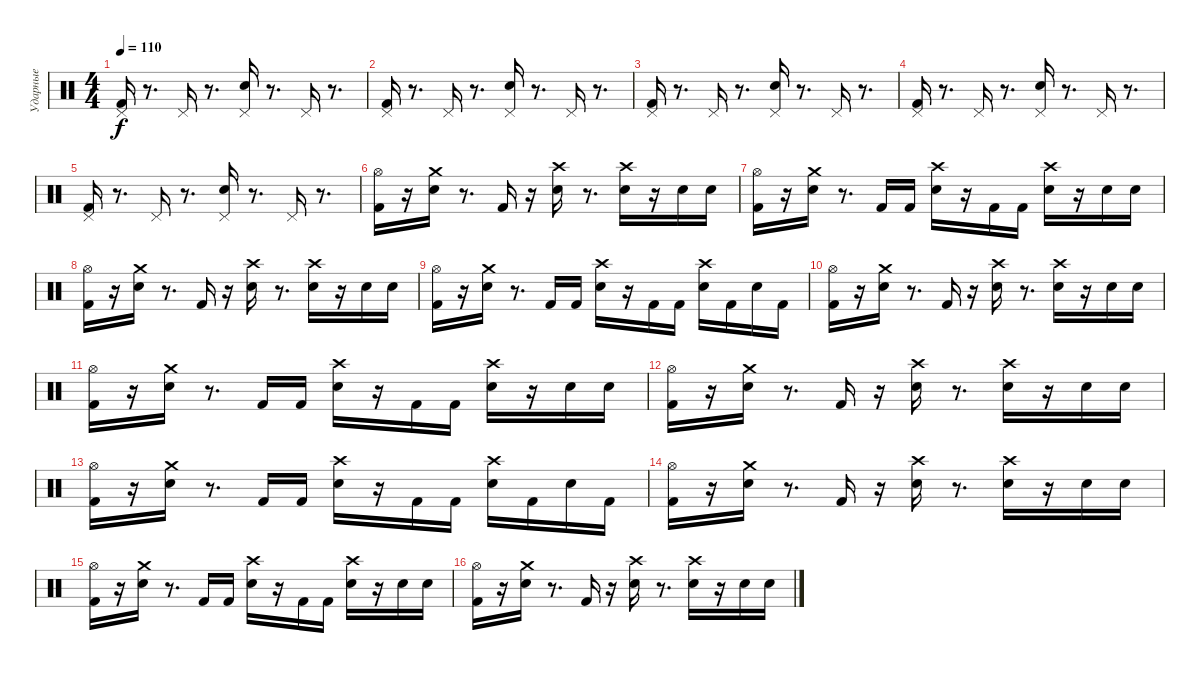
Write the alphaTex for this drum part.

\track ("Ударные" "Ударные") {instrument percussion}
\staff {score}
\articulation defaults
\ts (4 4)
\tempo 110
\clef neutral
\ks c
("Pedal Hi-Hat (hit)" "Kick (hit) 2").16{dy f} r.8{d} "Pedal Hi-Hat (hit)".16 r.8{d} ("Pedal Hi-Hat (hit)" "Electric Snare (hit)").16 r.8{d} "Pedal Hi-Hat (hit)".16 r.8{d} |
("Pedal Hi-Hat (hit)" "Kick (hit) 2").16 r.8{d} "Pedal Hi-Hat (hit)".16 r.8{d} ("Pedal Hi-Hat (hit)" "Electric Snare (hit)").16 r.8{d} "Pedal Hi-Hat (hit)".16 r.8{d} |
("Pedal Hi-Hat (hit)" "Kick (hit) 2").16 r.8{d} "Pedal Hi-Hat (hit)".16 r.8{d} ("Pedal Hi-Hat (hit)" "Electric Snare (hit)").16 r.8{d} "Pedal Hi-Hat (hit)".16 r.8{d} |
("Pedal Hi-Hat (hit)" "Kick (hit) 2").16 r.8{d} "Pedal Hi-Hat (hit)".16 r.8{d} ("Pedal Hi-Hat (hit)" "Electric Snare (hit)").16 r.8{d} "Pedal Hi-Hat (hit)".16 r.8{d} |
("Pedal Hi-Hat (hit)" "Kick (hit) 2").16 r.8{d} "Pedal Hi-Hat (hit)".16 r.8{d} ("Pedal Hi-Hat (hit)" "Electric Snare (hit)").16 r.8{d} "Pedal Hi-Hat (hit)".16 r.8{d} |
("Hi-Hat (open)" "Kick (hit) 2").16 r.16 ("Crash medium (hit)" "Electric Snare (hit)").16 r.8{d} "Kick (hit) 2".16 r.16 ("Crash high (hit)" "Electric Snare (hit)").16 r.8{d} ("Crash high (hit)" "Electric Snare (hit)").16 r.16 "Electric Snare (hit)".16 "Electric Snare (hit)".16 |
("Hi-Hat (open)" "Kick (hit) 2").16 r.16 ("Crash medium (hit)" "Electric Snare (hit)").16 r.8{d} "Kick (hit) 2".16 "Kick (hit) 2".16 ("Crash high (hit)" "Electric Snare (hit)").16 r.16 "Kick (hit) 2".16 "Kick (hit) 2".16 ("Crash high (hit)" "Electric Snare (hit)").16 r.16 "Electric Snare (hit)".16 "Electric Snare (hit)".16 |
("Hi-Hat (open)" "Kick (hit) 2").16 r.16 ("Crash medium (hit)" "Electric Snare (hit)").16 r.8{d} "Kick (hit) 2".16 r.16 ("Crash high (hit)" "Electric Snare (hit)").16 r.8{d} ("Crash high (hit)" "Electric Snare (hit)").16 r.16 "Electric Snare (hit)".16 "Electric Snare (hit)".16 |
("Hi-Hat (open)" "Kick (hit) 2").16 r.16 ("Crash medium (hit)" "Electric Snare (hit)").16 r.8{d} "Kick (hit) 2".16 "Kick (hit) 2".16 ("Crash high (hit)" "Electric Snare (hit)").16 r.16 "Kick (hit) 2".16 "Kick (hit) 2".16 ("Crash high (hit)" "Electric Snare (hit)").16 "Kick (hit) 2".16 "Electric Snare (hit)".16 "Kick (hit) 2".16 |
("Hi-Hat (open)" "Kick (hit) 2").16 r.16 ("Crash medium (hit)" "Electric Snare (hit)").16 r.8{d} "Kick (hit) 2".16 r.16 ("Crash high (hit)" "Electric Snare (hit)").16 r.8{d} ("Crash high (hit)" "Electric Snare (hit)").16 r.16 "Electric Snare (hit)".16 "Electric Snare (hit)".16 |
("Hi-Hat (open)" "Kick (hit) 2").16 r.16 ("Crash medium (hit)" "Electric Snare (hit)").16 r.8{d} "Kick (hit) 2".16 "Kick (hit) 2".16 ("Crash high (hit)" "Electric Snare (hit)").16 r.16 "Kick (hit) 2".16 "Kick (hit) 2".16 ("Crash high (hit)" "Electric Snare (hit)").16 r.16 "Electric Snare (hit)".16 "Electric Snare (hit)".16 |
("Hi-Hat (open)" "Kick (hit) 2").16 r.16 ("Crash medium (hit)" "Electric Snare (hit)").16 r.8{d} "Kick (hit) 2".16 r.16 ("Crash high (hit)" "Electric Snare (hit)").16 r.8{d} ("Crash high (hit)" "Electric Snare (hit)").16 r.16 "Electric Snare (hit)".16 "Electric Snare (hit)".16 |
("Hi-Hat (open)" "Kick (hit) 2").16 r.16 ("Crash medium (hit)" "Electric Snare (hit)").16 r.8{d} "Kick (hit) 2".16 "Kick (hit) 2".16 ("Crash high (hit)" "Electric Snare (hit)").16 r.16 "Kick (hit) 2".16 "Kick (hit) 2".16 ("Crash high (hit)" "Electric Snare (hit)").16 "Kick (hit) 2".16 "Electric Snare (hit)".16 "Kick (hit) 2".16 |
("Hi-Hat (open)" "Kick (hit) 2").16 r.16 ("Crash medium (hit)" "Electric Snare (hit)").16 r.8{d} "Kick (hit) 2".16 r.16 ("Crash high (hit)" "Electric Snare (hit)").16 r.8{d} ("Crash high (hit)" "Electric Snare (hit)").16 r.16 "Electric Snare (hit)".16 "Electric Snare (hit)".16 |
("Hi-Hat (open)" "Kick (hit) 2").16 r.16 ("Crash medium (hit)" "Electric Snare (hit)").16 r.8{d} "Kick (hit) 2".16 "Kick (hit) 2".16 ("Crash high (hit)" "Electric Snare (hit)").16 r.16 "Kick (hit) 2".16 "Kick (hit) 2".16 ("Crash high (hit)" "Electric Snare (hit)").16 r.16 "Electric Snare (hit)".16 "Electric Snare (hit)".16 |
("Hi-Hat (open)" "Kick (hit) 2").16 r.16 ("Crash medium (hit)" "Electric Snare (hit)").16 r.8{d} "Kick (hit) 2".16 r.16 ("Crash high (hit)" "Electric Snare (hit)").16 r.8{d} ("Crash high (hit)" "Electric Snare (hit)").16 r.16 "Electric Snare (hit)".16 "Electric Snare (hit)".16
